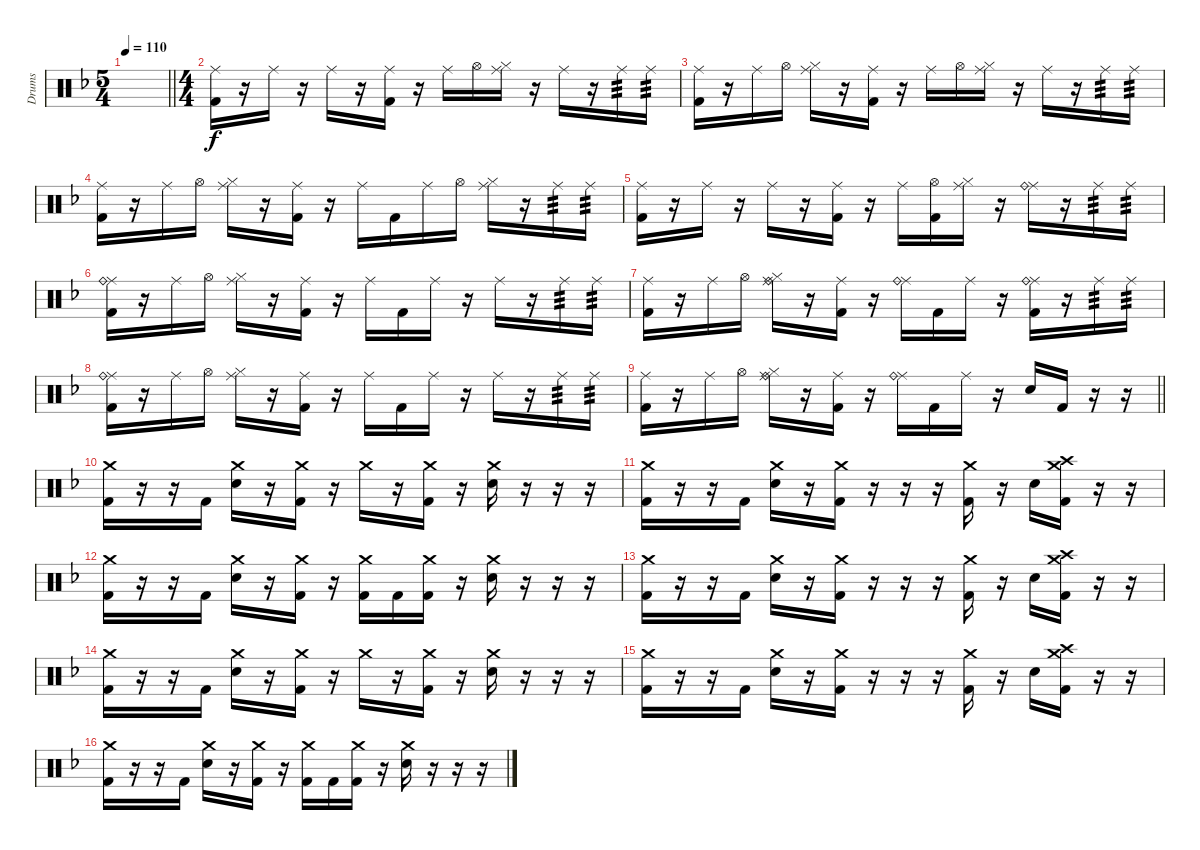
\track ("Drums" "Drums") {instrument percussion}
\staff {score}
\articulation defaults
\ts (5 4)
\tempo 110
\clef neutral
\barLineRight lightlight
\ks dminor
|
\ts (4 4)
("Ride (middle)" "Kick (hit) 2").16{dy f} r.16 "Ride (middle)".16 r.16 "Ride (middle)".16 r.16 ("Ride (middle)" "Kick (hit) 2").16 r.16 "Ride (middle)".16 "Hi-Hat (open)".16 ("Hi-Hat (closed)" "Ride (middle)").16 r.16 "Ride (middle)".16 r.16 "Ride (middle)".16{tp 3} "Ride (middle)".16{tp 3} |
("Ride (middle)" "Kick (hit) 2").16 r.16 "Ride (middle)".16 "Hi-Hat (open)".16 ("Hi-Hat (closed)" "Ride (middle)").16 r.16 ("Ride (middle)" "Kick (hit) 2").16 r.16 "Ride (middle)".16 "Hi-Hat (open)".16 ("Hi-Hat (closed)" "Ride (middle)").16 r.16 "Ride (middle)".16 r.16 "Ride (middle)".16{tp 3} "Ride (middle)".16{tp 3} |
("Ride (middle)" "Kick (hit) 2").16 r.16 "Ride (middle)".16 "Hi-Hat (open)".16 ("Hi-Hat (closed)" "Ride (middle)").16 r.16 ("Ride (middle)" "Kick (hit) 2").16 r.16 "Ride (middle)".16 "Kick (hit) 2".16 "Ride (middle)".16 "Hi-Hat (open)".16 ("Hi-Hat (closed)" "Ride (middle)").16 r.16 "Ride (middle)".16{tp 3} "Ride (middle)".16{tp 3} |
("Ride (middle)" "Kick (hit) 2").16 r.16 "Ride (middle)".16 r.16 "Ride (middle)".16 r.16 ("Ride (middle)" "Kick (hit) 2").16 r.16 "Ride (middle)".16 ("Hi-Hat (open)" "Kick (hit) 2").16 ("Hi-Hat (closed)" "Ride (middle)").16 r.16 ("Ride (middle)" "Ride (bell)").16 r.16 "Ride (middle)".16{tp 3} "Ride (middle)".16{tp 3} |
("Ride (middle)" "Ride (bell)" "Kick (hit) 2").16 r.16 "Ride (middle)".16 "Hi-Hat (open)".16 ("Hi-Hat (closed)" "Ride (middle)").16 r.16 ("Ride (middle)" "Kick (hit) 2").16 r.16 "Ride (middle)".16 "Kick (hit) 2".16 "Ride (middle)".16 r.16 "Ride (middle)".16 r.16 "Ride (middle)".16{tp 3} "Ride (middle)".16{tp 3} |
("Ride (middle)" "Kick (hit) 2").16 r.16 "Ride (middle)".16 "Hi-Hat (open)".16 ("Hi-Hat (closed)" "Ride (middle)" "Ride (bell)").16 r.16 ("Ride (middle)" "Kick (hit) 2").16 r.16 ("Ride (middle)" "Ride (bell)").16 "Kick (hit) 2".16 "Ride (middle)".16 r.16 ("Ride (middle)" "Ride (bell)" "Kick (hit) 2").16 r.16 "Ride (middle)".16{tp 3} "Ride (middle)".16{tp 3} |
("Ride (middle)" "Ride (bell)" "Kick (hit) 2").16 r.16 "Ride (middle)".16 "Hi-Hat (open)".16 ("Hi-Hat (closed)" "Ride (middle)").16 r.16 ("Ride (middle)" "Kick (hit) 2").16 r.16 "Ride (middle)".16 "Kick (hit) 2".16 "Ride (middle)".16 r.16 "Ride (middle)".16 r.16 "Ride (middle)".16{tp 3} "Ride (middle)".16{tp 3} |
\barLineRight lightlight
("Ride (middle)" "Kick (hit) 2").16 r.16 "Ride (middle)".16 "Hi-Hat (open)".16 ("Hi-Hat (closed)" "Ride (middle)" "Ride (bell)").16 r.16 ("Ride (middle)" "Kick (hit) 2").16 r.16 ("Ride (middle)" "Ride (bell)").16 "Kick (hit) 2".16 "Ride (middle)".16 r.16 "Snare (hit) 2".16 "Kick (hit) 2".16 r.16 r.16 |
("Crash medium (hit)" "Kick (hit) 2").16 r.16 r.16 "Kick (hit) 2".16 ("Crash medium (hit)" "Snare (hit) 2").16 r.16 ("Crash medium (hit)" "Kick (hit) 2").16 r.16 "Crash medium (hit)".16 r.16 ("Crash medium (hit)" "Kick (hit) 2").16 r.16 ("Crash medium (hit)" "Snare (hit) 2").16 r.16 r.16 r.16 |
("Crash medium (hit)" "Kick (hit) 2").16 r.16 r.16 "Kick (hit) 2".16 ("Crash medium (hit)" "Snare (hit) 2").16 r.16 ("Crash medium (hit)" "Kick (hit) 2").16 r.16 r.16 r.16 ("Crash medium (hit)" "Kick (hit) 2").16 r.16 "Snare (hit) 2".16 ("Crash high (hit)" "Crash medium (hit)" "Kick (hit) 2").16 r.16 r.16 |
("Crash medium (hit)" "Kick (hit) 2").16 r.16 r.16 "Kick (hit) 2".16 ("Crash medium (hit)" "Snare (hit) 2").16 r.16 ("Crash medium (hit)" "Kick (hit) 2").16 r.16 ("Crash medium (hit)" "Kick (hit) 2").16 "Kick (hit) 2".16 ("Crash medium (hit)" "Kick (hit) 2").16 r.16 ("Crash medium (hit)" "Snare (hit) 2").16 r.16 r.16 r.16 |
("Crash medium (hit)" "Kick (hit) 2").16 r.16 r.16 "Kick (hit) 2".16 ("Crash medium (hit)" "Snare (hit) 2").16 r.16 ("Crash medium (hit)" "Kick (hit) 2").16 r.16 r.16 r.16 ("Crash medium (hit)" "Kick (hit) 2").16 r.16 "Snare (hit) 2".16 ("Crash high (hit)" "Crash medium (hit)" "Kick (hit) 2").16 r.16 r.16 |
("Crash medium (hit)" "Kick (hit) 2").16 r.16 r.16 "Kick (hit) 2".16 ("Crash medium (hit)" "Snare (hit) 2").16 r.16 ("Crash medium (hit)" "Kick (hit) 2").16 r.16 "Crash medium (hit)".16 r.16 ("Crash medium (hit)" "Kick (hit) 2").16 r.16 ("Crash medium (hit)" "Snare (hit) 2").16 r.16 r.16 r.16 |
("Crash medium (hit)" "Kick (hit) 2").16 r.16 r.16 "Kick (hit) 2".16 ("Crash medium (hit)" "Snare (hit) 2").16 r.16 ("Crash medium (hit)" "Kick (hit) 2").16 r.16 r.16 r.16 ("Crash medium (hit)" "Kick (hit) 2").16 r.16 "Snare (hit) 2".16 ("Crash high (hit)" "Crash medium (hit)" "Kick (hit) 2").16 r.16 r.16 |
("Crash medium (hit)" "Kick (hit) 2").16 r.16 r.16 "Kick (hit) 2".16 ("Crash medium (hit)" "Snare (hit) 2").16 r.16 ("Crash medium (hit)" "Kick (hit) 2").16 r.16 ("Crash medium (hit)" "Kick (hit) 2").16 "Kick (hit) 2".16 ("Crash medium (hit)" "Kick (hit) 2").16 r.16 ("Crash medium (hit)" "Snare (hit) 2").16 r.16 r.16 r.16
